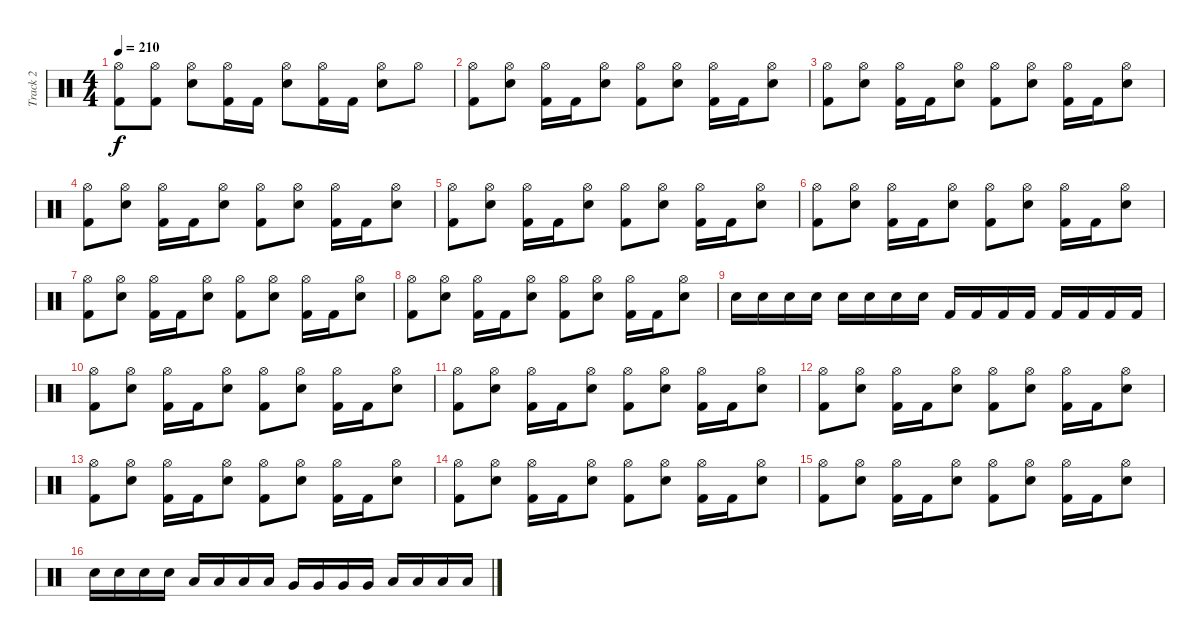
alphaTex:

\track ("Track 2" "Track 2") {instrument percussion}
\staff {score}
\articulation defaults
\ts (4 4)
\tempo 210
\clef neutral
\ks c
("Hi-Hat (open)" "Kick (hit) 2").8{dy f} ("Hi-Hat (open)" "Kick (hit) 2").8 ("Hi-Hat (open)" "Snare (hit) 2").8 ("Hi-Hat (open)" "Kick (hit) 2").16 "Kick (hit) 2".16 ("Hi-Hat (open)" "Snare (hit) 2").8 ("Hi-Hat (open)" "Kick (hit) 2").16 "Kick (hit) 2".16 ("Hi-Hat (open)" "Snare (hit) 2").8 "Hi-Hat (open)".8 |
("Hi-Hat (open)" "Kick (hit) 2").8 ("Hi-Hat (open)" "Snare (hit) 2").8 ("Hi-Hat (open)" "Kick (hit) 2").16 "Kick (hit) 2".16 ("Hi-Hat (open)" "Snare (hit) 2").8 ("Hi-Hat (open)" "Kick (hit) 2").8 ("Hi-Hat (open)" "Snare (hit) 2").8 ("Hi-Hat (open)" "Kick (hit) 2").16 "Kick (hit) 2".16 ("Hi-Hat (open)" "Snare (hit) 2").8 |
("Hi-Hat (open)" "Kick (hit) 2").8 ("Hi-Hat (open)" "Snare (hit) 2").8 ("Hi-Hat (open)" "Kick (hit) 2").16 "Kick (hit) 2".16 ("Hi-Hat (open)" "Snare (hit) 2").8 ("Hi-Hat (open)" "Kick (hit) 2").8 ("Hi-Hat (open)" "Snare (hit) 2").8 ("Hi-Hat (open)" "Kick (hit) 2").16 "Kick (hit) 2".16 ("Hi-Hat (open)" "Snare (hit) 2").8 |
("Hi-Hat (open)" "Kick (hit) 2").8 ("Hi-Hat (open)" "Snare (hit) 2").8 ("Hi-Hat (open)" "Kick (hit) 2").16 "Kick (hit) 2".16 ("Hi-Hat (open)" "Snare (hit) 2").8 ("Hi-Hat (open)" "Kick (hit) 2").8 ("Hi-Hat (open)" "Snare (hit) 2").8 ("Hi-Hat (open)" "Kick (hit) 2").16 "Kick (hit) 2".16 ("Hi-Hat (open)" "Snare (hit) 2").8 |
("Hi-Hat (open)" "Kick (hit) 2").8 ("Hi-Hat (open)" "Snare (hit) 2").8 ("Hi-Hat (open)" "Kick (hit) 2").16 "Kick (hit) 2".16 ("Hi-Hat (open)" "Snare (hit) 2").8 ("Hi-Hat (open)" "Kick (hit) 2").8 ("Hi-Hat (open)" "Snare (hit) 2").8 ("Hi-Hat (open)" "Kick (hit) 2").16 "Kick (hit) 2".16 ("Hi-Hat (open)" "Snare (hit) 2").8 |
("Hi-Hat (open)" "Kick (hit) 2").8 ("Hi-Hat (open)" "Snare (hit) 2").8 ("Hi-Hat (open)" "Kick (hit) 2").16 "Kick (hit) 2".16 ("Hi-Hat (open)" "Snare (hit) 2").8 ("Hi-Hat (open)" "Kick (hit) 2").8 ("Hi-Hat (open)" "Snare (hit) 2").8 ("Hi-Hat (open)" "Kick (hit) 2").16 "Kick (hit) 2".16 ("Hi-Hat (open)" "Snare (hit) 2").8 |
("Hi-Hat (open)" "Kick (hit) 2").8 ("Hi-Hat (open)" "Snare (hit) 2").8 ("Hi-Hat (open)" "Kick (hit) 2").16 "Kick (hit) 2".16 ("Hi-Hat (open)" "Snare (hit) 2").8 ("Hi-Hat (open)" "Kick (hit) 2").8 ("Hi-Hat (open)" "Snare (hit) 2").8 ("Hi-Hat (open)" "Kick (hit) 2").16 "Kick (hit) 2".16 ("Hi-Hat (open)" "Snare (hit) 2").8 |
("Hi-Hat (open)" "Kick (hit) 2").8 ("Hi-Hat (open)" "Snare (hit) 2").8 ("Hi-Hat (open)" "Kick (hit) 2").16 "Kick (hit) 2".16 ("Hi-Hat (open)" "Snare (hit) 2").8 ("Hi-Hat (open)" "Kick (hit) 2").8 ("Hi-Hat (open)" "Snare (hit) 2").8 ("Hi-Hat (open)" "Kick (hit) 2").16 "Kick (hit) 2".16 ("Hi-Hat (open)" "Snare (hit) 2").8 |
"Snare (hit) 2".16 "Snare (hit) 2".16 "Snare (hit) 2".16 "Snare (hit) 2".16 "Snare (hit) 2".16 "Snare (hit) 2".16 "Snare (hit) 2".16 "Snare (hit) 2".16 "Kick (hit) 2".16 "Kick (hit) 2".16 "Kick (hit) 2".16 "Kick (hit) 2".16 "Kick (hit) 2".16 "Kick (hit) 2".16 "Kick (hit) 2".16 "Kick (hit) 2".16 |
("Hi-Hat (open)" "Kick (hit) 2").8 ("Hi-Hat (open)" "Snare (hit) 2").8 ("Hi-Hat (open)" "Kick (hit) 2").16 "Kick (hit) 2".16 ("Hi-Hat (open)" "Snare (hit) 2").8 ("Hi-Hat (open)" "Kick (hit) 2").8 ("Hi-Hat (open)" "Snare (hit) 2").8 ("Hi-Hat (open)" "Kick (hit) 2").16 "Kick (hit) 2".16 ("Hi-Hat (open)" "Snare (hit) 2").8 |
("Hi-Hat (open)" "Kick (hit) 2").8 ("Hi-Hat (open)" "Snare (hit) 2").8 ("Hi-Hat (open)" "Kick (hit) 2").16 "Kick (hit) 2".16 ("Hi-Hat (open)" "Snare (hit) 2").8 ("Hi-Hat (open)" "Kick (hit) 2").8 ("Hi-Hat (open)" "Snare (hit) 2").8 ("Hi-Hat (open)" "Kick (hit) 2").16 "Kick (hit) 2".16 ("Hi-Hat (open)" "Snare (hit) 2").8 |
("Hi-Hat (open)" "Kick (hit) 2").8 ("Hi-Hat (open)" "Snare (hit) 2").8 ("Hi-Hat (open)" "Kick (hit) 2").16 "Kick (hit) 2".16 ("Hi-Hat (open)" "Snare (hit) 2").8 ("Hi-Hat (open)" "Kick (hit) 2").8 ("Hi-Hat (open)" "Snare (hit) 2").8 ("Hi-Hat (open)" "Kick (hit) 2").16 "Kick (hit) 2".16 ("Hi-Hat (open)" "Snare (hit) 2").8 |
("Hi-Hat (open)" "Kick (hit) 2").8 ("Hi-Hat (open)" "Snare (hit) 2").8 ("Hi-Hat (open)" "Kick (hit) 2").16 "Kick (hit) 2".16 ("Hi-Hat (open)" "Snare (hit) 2").8 ("Hi-Hat (open)" "Kick (hit) 2").8 ("Hi-Hat (open)" "Snare (hit) 2").8 ("Hi-Hat (open)" "Kick (hit) 2").16 "Kick (hit) 2".16 ("Hi-Hat (open)" "Snare (hit) 2").8 |
("Hi-Hat (open)" "Kick (hit) 2").8 ("Hi-Hat (open)" "Snare (hit) 2").8 ("Hi-Hat (open)" "Kick (hit) 2").16 "Kick (hit) 2".16 ("Hi-Hat (open)" "Snare (hit) 2").8 ("Hi-Hat (open)" "Kick (hit) 2").8 ("Hi-Hat (open)" "Snare (hit) 2").8 ("Hi-Hat (open)" "Kick (hit) 2").16 "Kick (hit) 2".16 ("Hi-Hat (open)" "Snare (hit) 2").8 |
("Hi-Hat (open)" "Kick (hit) 2").8 ("Hi-Hat (open)" "Snare (hit) 2").8 ("Hi-Hat (open)" "Kick (hit) 2").16 "Kick (hit) 2".16 ("Hi-Hat (open)" "Snare (hit) 2").8 ("Hi-Hat (open)" "Kick (hit) 2").8 ("Hi-Hat (open)" "Snare (hit) 2").8 ("Hi-Hat (open)" "Kick (hit) 2").16 "Kick (hit) 2".16 ("Hi-Hat (open)" "Snare (hit) 2").8 |
"Snare (hit) 2".16 "Snare (hit) 2".16 "Snare (hit) 2".16 "Snare (hit) 2".16 "Low Tom (hit)".16 "Low Tom (hit)".16 "Low Tom (hit)".16 "Low Tom (hit)".16 "Very Low Tom (hit)".16 "Very Low Tom (hit)".16 "Very Low Tom (hit)".16 "Very Low Tom (hit)".16 "Low Floor Tom (hit)".16 "Low Floor Tom (hit)".16 "Low Floor Tom (hit)".16 "Low Floor Tom (hit)".16
